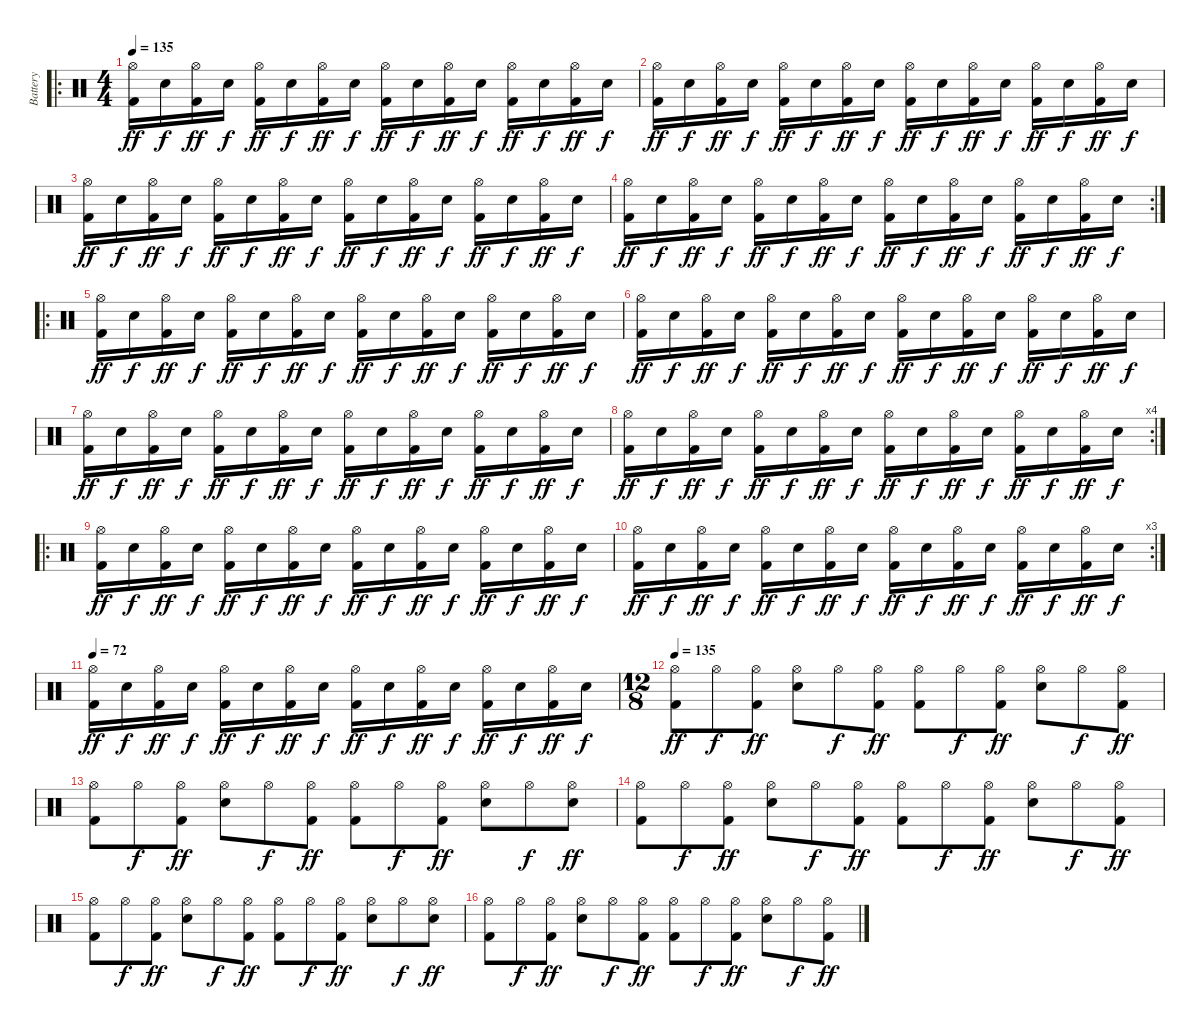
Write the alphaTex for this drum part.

\track ("Battery" "Battery") {instrument percussion}
\staff {score}
\articulation defaults
\ro
\ts (4 4)
\tempo 135
\clef neutral
\ks c
("Hi-Hat (open)" "Kick (hit) 2").16{dy ff} "Snare (hit) 2".16{dy f} ("Hi-Hat (open)" "Kick (hit) 2").16{dy ff} "Snare (hit) 2".16{dy f} ("Hi-Hat (open)" "Kick (hit) 2").16{dy ff} "Snare (hit) 2".16{dy f} ("Hi-Hat (open)" "Kick (hit) 2").16{dy ff} "Snare (hit) 2".16{dy f} ("Hi-Hat (open)" "Kick (hit) 2").16{dy ff} "Snare (hit) 2".16{dy f} ("Hi-Hat (open)" "Kick (hit) 2").16{dy ff} "Snare (hit) 2".16{dy f} ("Hi-Hat (open)" "Kick (hit) 2").16{dy ff} "Snare (hit) 2".16{dy f} ("Hi-Hat (open)" "Kick (hit) 2").16{dy ff} "Snare (hit) 2".16{dy f} |
("Hi-Hat (open)" "Kick (hit) 2").16{dy ff} "Snare (hit) 2".16{dy f} ("Hi-Hat (open)" "Kick (hit) 2").16{dy ff} "Snare (hit) 2".16{dy f} ("Hi-Hat (open)" "Kick (hit) 2").16{dy ff} "Snare (hit) 2".16{dy f} ("Hi-Hat (open)" "Kick (hit) 2").16{dy ff} "Snare (hit) 2".16{dy f} ("Hi-Hat (open)" "Kick (hit) 2").16{dy ff} "Snare (hit) 2".16{dy f} ("Hi-Hat (open)" "Kick (hit) 2").16{dy ff} "Snare (hit) 2".16{dy f} ("Hi-Hat (open)" "Kick (hit) 2").16{dy ff} "Snare (hit) 2".16{dy f} ("Hi-Hat (open)" "Kick (hit) 2").16{dy ff} "Snare (hit) 2".16{dy f} |
("Hi-Hat (open)" "Kick (hit) 2").16{dy ff} "Snare (hit) 2".16{dy f} ("Hi-Hat (open)" "Kick (hit) 2").16{dy ff} "Snare (hit) 2".16{dy f} ("Hi-Hat (open)" "Kick (hit) 2").16{dy ff} "Snare (hit) 2".16{dy f} ("Hi-Hat (open)" "Kick (hit) 2").16{dy ff} "Snare (hit) 2".16{dy f} ("Hi-Hat (open)" "Kick (hit) 2").16{dy ff} "Snare (hit) 2".16{dy f} ("Hi-Hat (open)" "Kick (hit) 2").16{dy ff} "Snare (hit) 2".16{dy f} ("Hi-Hat (open)" "Kick (hit) 2").16{dy ff} "Snare (hit) 2".16{dy f} ("Hi-Hat (open)" "Kick (hit) 2").16{dy ff} "Snare (hit) 2".16{dy f} |
\rc 2
("Hi-Hat (open)" "Kick (hit) 2").16{dy ff} "Snare (hit) 2".16{dy f} ("Hi-Hat (open)" "Kick (hit) 2").16{dy ff} "Snare (hit) 2".16{dy f} ("Hi-Hat (open)" "Kick (hit) 2").16{dy ff} "Snare (hit) 2".16{dy f} ("Hi-Hat (open)" "Kick (hit) 2").16{dy ff} "Snare (hit) 2".16{dy f} ("Hi-Hat (open)" "Kick (hit) 2").16{dy ff} "Snare (hit) 2".16{dy f} ("Hi-Hat (open)" "Kick (hit) 2").16{dy ff} "Snare (hit) 2".16{dy f} ("Hi-Hat (open)" "Kick (hit) 2").16{dy ff} "Snare (hit) 2".16{dy f} ("Hi-Hat (open)" "Kick (hit) 2").16{dy ff} "Snare (hit) 2".16{dy f} |
\ro
("Hi-Hat (open)" "Kick (hit) 2").16{dy ff} "Snare (hit) 2".16{dy f} ("Hi-Hat (open)" "Kick (hit) 2").16{dy ff} "Snare (hit) 2".16{dy f} ("Hi-Hat (open)" "Kick (hit) 2").16{dy ff} "Snare (hit) 2".16{dy f} ("Hi-Hat (open)" "Kick (hit) 2").16{dy ff} "Snare (hit) 2".16{dy f} ("Hi-Hat (open)" "Kick (hit) 2").16{dy ff} "Snare (hit) 2".16{dy f} ("Hi-Hat (open)" "Kick (hit) 2").16{dy ff} "Snare (hit) 2".16{dy f} ("Hi-Hat (open)" "Kick (hit) 2").16{dy ff} "Snare (hit) 2".16{dy f} ("Hi-Hat (open)" "Kick (hit) 2").16{dy ff} "Snare (hit) 2".16{dy f} |
("Hi-Hat (open)" "Kick (hit) 2").16{dy ff} "Snare (hit) 2".16{dy f} ("Hi-Hat (open)" "Kick (hit) 2").16{dy ff} "Snare (hit) 2".16{dy f} ("Hi-Hat (open)" "Kick (hit) 2").16{dy ff} "Snare (hit) 2".16{dy f} ("Hi-Hat (open)" "Kick (hit) 2").16{dy ff} "Snare (hit) 2".16{dy f} ("Hi-Hat (open)" "Kick (hit) 2").16{dy ff} "Snare (hit) 2".16{dy f} ("Hi-Hat (open)" "Kick (hit) 2").16{dy ff} "Snare (hit) 2".16{dy f} ("Hi-Hat (open)" "Kick (hit) 2").16{dy ff} "Snare (hit) 2".16{dy f} ("Hi-Hat (open)" "Kick (hit) 2").16{dy ff} "Snare (hit) 2".16{dy f} |
("Hi-Hat (open)" "Kick (hit) 2").16{dy ff} "Snare (hit) 2".16{dy f} ("Hi-Hat (open)" "Kick (hit) 2").16{dy ff} "Snare (hit) 2".16{dy f} ("Hi-Hat (open)" "Kick (hit) 2").16{dy ff} "Snare (hit) 2".16{dy f} ("Hi-Hat (open)" "Kick (hit) 2").16{dy ff} "Snare (hit) 2".16{dy f} ("Hi-Hat (open)" "Kick (hit) 2").16{dy ff} "Snare (hit) 2".16{dy f} ("Hi-Hat (open)" "Kick (hit) 2").16{dy ff} "Snare (hit) 2".16{dy f} ("Hi-Hat (open)" "Kick (hit) 2").16{dy ff} "Snare (hit) 2".16{dy f} ("Hi-Hat (open)" "Kick (hit) 2").16{dy ff} "Snare (hit) 2".16{dy f} |
\rc 4
("Hi-Hat (open)" "Kick (hit) 2").16{dy ff} "Snare (hit) 2".16{dy f} ("Hi-Hat (open)" "Kick (hit) 2").16{dy ff} "Snare (hit) 2".16{dy f} ("Hi-Hat (open)" "Kick (hit) 2").16{dy ff} "Snare (hit) 2".16{dy f} ("Hi-Hat (open)" "Kick (hit) 2").16{dy ff} "Snare (hit) 2".16{dy f} ("Hi-Hat (open)" "Kick (hit) 2").16{dy ff} "Snare (hit) 2".16{dy f} ("Hi-Hat (open)" "Kick (hit) 2").16{dy ff} "Snare (hit) 2".16{dy f} ("Hi-Hat (open)" "Kick (hit) 2").16{dy ff} "Snare (hit) 2".16{dy f} ("Hi-Hat (open)" "Kick (hit) 2").16{dy ff} "Snare (hit) 2".16{dy f} |
\ro
("Hi-Hat (open)" "Kick (hit) 2").16{dy ff} "Snare (hit) 2".16{dy f} ("Hi-Hat (open)" "Kick (hit) 2").16{dy ff} "Snare (hit) 2".16{dy f} ("Hi-Hat (open)" "Kick (hit) 2").16{dy ff} "Snare (hit) 2".16{dy f} ("Hi-Hat (open)" "Kick (hit) 2").16{dy ff} "Snare (hit) 2".16{dy f} ("Hi-Hat (open)" "Kick (hit) 2").16{dy ff} "Snare (hit) 2".16{dy f} ("Hi-Hat (open)" "Kick (hit) 2").16{dy ff} "Snare (hit) 2".16{dy f} ("Hi-Hat (open)" "Kick (hit) 2").16{dy ff} "Snare (hit) 2".16{dy f} ("Hi-Hat (open)" "Kick (hit) 2").16{dy ff} "Snare (hit) 2".16{dy f} |
\rc 3
("Hi-Hat (open)" "Kick (hit) 2").16{dy ff} "Snare (hit) 2".16{dy f} ("Hi-Hat (open)" "Kick (hit) 2").16{dy ff} "Snare (hit) 2".16{dy f} ("Hi-Hat (open)" "Kick (hit) 2").16{dy ff} "Snare (hit) 2".16{dy f} ("Hi-Hat (open)" "Kick (hit) 2").16{dy ff} "Snare (hit) 2".16{dy f} ("Hi-Hat (open)" "Kick (hit) 2").16{dy ff} "Snare (hit) 2".16{dy f} ("Hi-Hat (open)" "Kick (hit) 2").16{dy ff} "Snare (hit) 2".16{dy f} ("Hi-Hat (open)" "Kick (hit) 2").16{dy ff} "Snare (hit) 2".16{dy f} ("Hi-Hat (open)" "Kick (hit) 2").16{dy ff} "Snare (hit) 2".16{dy f} |
\tempo 72
("Hi-Hat (open)" "Kick (hit) 2").16{dy ff} "Snare (hit) 2".16{dy f} ("Hi-Hat (open)" "Kick (hit) 2").16{dy ff} "Snare (hit) 2".16{dy f} ("Hi-Hat (open)" "Kick (hit) 2").16{dy ff} "Snare (hit) 2".16{dy f} ("Hi-Hat (open)" "Kick (hit) 2").16{dy ff} "Snare (hit) 2".16{dy f} ("Hi-Hat (open)" "Kick (hit) 2").16{dy ff} "Snare (hit) 2".16{dy f} ("Hi-Hat (open)" "Kick (hit) 2").16{dy ff} "Snare (hit) 2".16{dy f} ("Hi-Hat (open)" "Kick (hit) 2").16{dy ff} "Snare (hit) 2".16{dy f} ("Hi-Hat (open)" "Kick (hit) 2").16{dy ff} "Snare (hit) 2".16{dy f} |
\ts (12 8)
\tempo 135
("Hi-Hat (open)" "Kick (hit) 2").8{dy ff} "Hi-Hat (open)".8{dy f} ("Hi-Hat (open)" "Kick (hit) 2").8{dy ff} ("Hi-Hat (open)" "Snare (hit) 2").8 "Hi-Hat (open)".8{dy f} ("Hi-Hat (open)" "Kick (hit) 2").8{dy ff} ("Hi-Hat (open)" "Kick (hit) 2").8 "Hi-Hat (open)".8{dy f} ("Hi-Hat (open)" "Kick (hit) 2").8{dy ff} ("Hi-Hat (open)" "Snare (hit) 2").8 "Hi-Hat (open)".8{dy f} ("Hi-Hat (open)" "Kick (hit) 2").8{dy ff} |
("Hi-Hat (open)" "Kick (hit) 2").8 "Hi-Hat (open)".8{dy f} ("Hi-Hat (open)" "Kick (hit) 2").8{dy ff} ("Hi-Hat (open)" "Snare (hit) 2").8 "Hi-Hat (open)".8{dy f} ("Hi-Hat (open)" "Kick (hit) 2").8{dy ff} ("Hi-Hat (open)" "Kick (hit) 2").8 "Hi-Hat (open)".8{dy f} ("Hi-Hat (open)" "Kick (hit) 2").8{dy ff} ("Hi-Hat (open)" "Snare (hit) 2").8 "Hi-Hat (open)".8{dy f} ("Hi-Hat (open)" "Snare (hit) 2").8{dy ff} |
("Hi-Hat (open)" "Kick (hit) 2").8 "Hi-Hat (open)".8{dy f} ("Hi-Hat (open)" "Kick (hit) 2").8{dy ff} ("Hi-Hat (open)" "Snare (hit) 2").8 "Hi-Hat (open)".8{dy f} ("Hi-Hat (open)" "Kick (hit) 2").8{dy ff} ("Hi-Hat (open)" "Kick (hit) 2").8 "Hi-Hat (open)".8{dy f} ("Hi-Hat (open)" "Kick (hit) 2").8{dy ff} ("Hi-Hat (open)" "Snare (hit) 2").8 "Hi-Hat (open)".8{dy f} ("Hi-Hat (open)" "Kick (hit) 2").8{dy ff} |
("Hi-Hat (open)" "Kick (hit) 2").8 "Hi-Hat (open)".8{dy f} ("Hi-Hat (open)" "Kick (hit) 2").8{dy ff} ("Hi-Hat (open)" "Snare (hit) 2").8 "Hi-Hat (open)".8{dy f} ("Hi-Hat (open)" "Kick (hit) 2").8{dy ff} ("Hi-Hat (open)" "Kick (hit) 2").8 "Hi-Hat (open)".8{dy f} ("Hi-Hat (open)" "Kick (hit) 2").8{dy ff} ("Hi-Hat (open)" "Snare (hit) 2").8 "Hi-Hat (open)".8{dy f} ("Hi-Hat (open)" "Snare (hit) 2").8{dy ff} |
("Hi-Hat (open)" "Kick (hit) 2").8 "Hi-Hat (open)".8{dy f} ("Hi-Hat (open)" "Kick (hit) 2").8{dy ff} ("Hi-Hat (open)" "Snare (hit) 2").8 "Hi-Hat (open)".8{dy f} ("Hi-Hat (open)" "Kick (hit) 2").8{dy ff} ("Hi-Hat (open)" "Kick (hit) 2").8 "Hi-Hat (open)".8{dy f} ("Hi-Hat (open)" "Kick (hit) 2").8{dy ff} ("Hi-Hat (open)" "Snare (hit) 2").8 "Hi-Hat (open)".8{dy f} ("Hi-Hat (open)" "Kick (hit) 2").8{dy ff}
